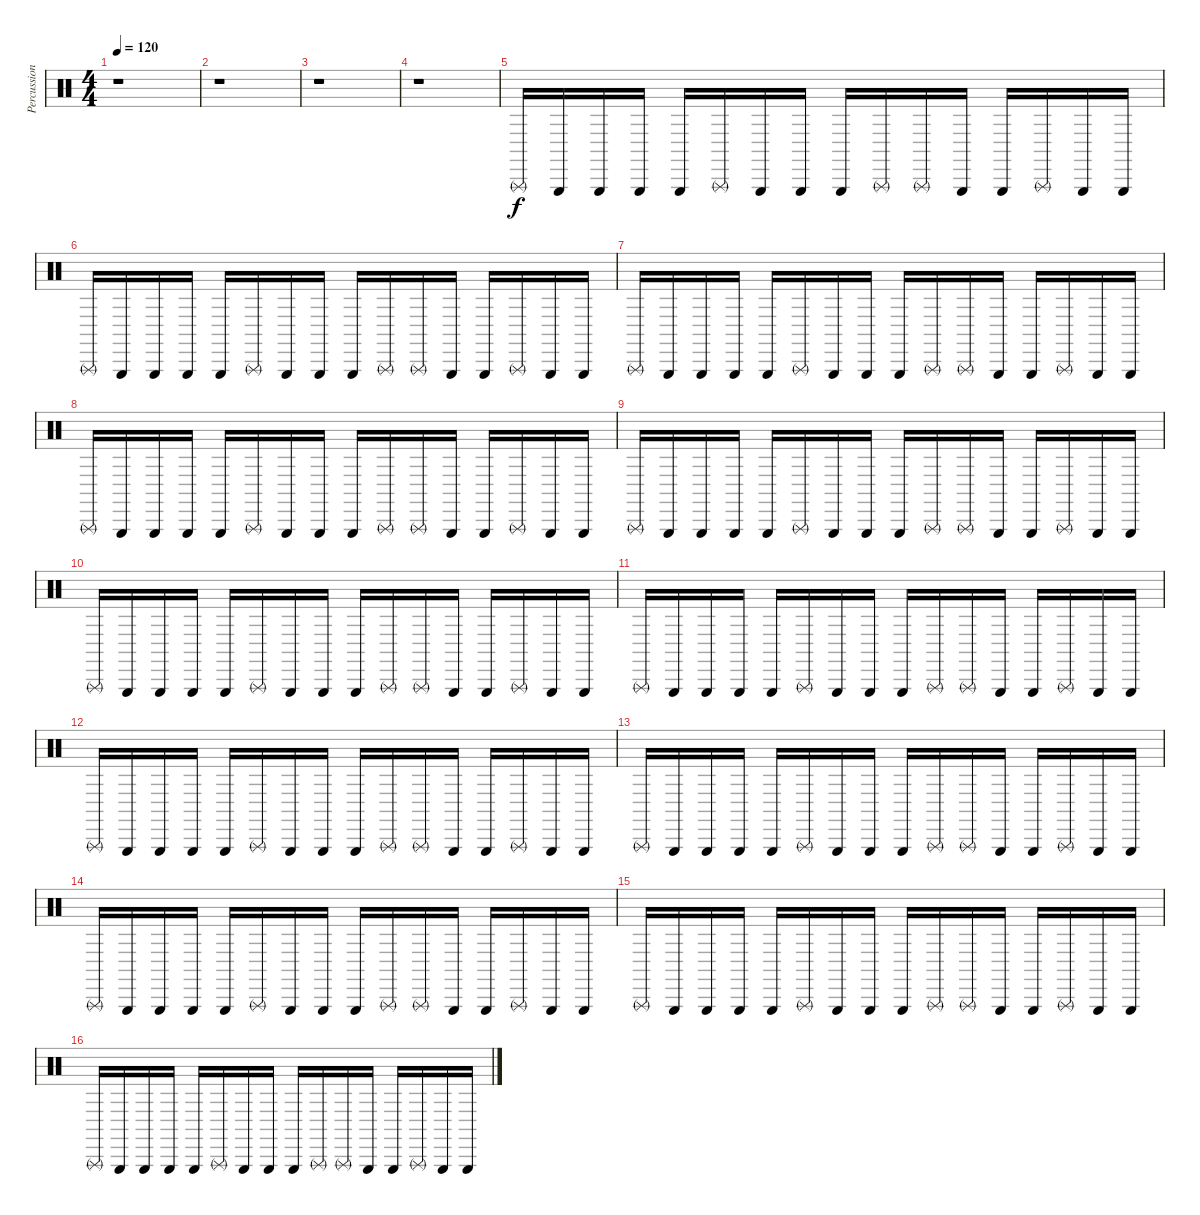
\track ("Percussion" "Percussion") {instrument percussion}
\staff {score}
\articulation defaults
\ts (4 4)
\tempo 120
\clef neutral
\ks c
r.1{dy f} |
r.1 |
r.1 |
r.1 |
"Triangle (rnute)".16 "Triangle (hit)".16 "Triangle (hit)".16 "Triangle (hit)".16 "Triangle (hit)".16 "Triangle (rnute)".16 "Triangle (hit)".16 "Triangle (hit)".16 "Triangle (hit)".16 "Triangle (rnute)".16 "Triangle (rnute)".16 "Triangle (hit)".16 "Triangle (hit)".16 "Triangle (rnute)".16 "Triangle (hit)".16 "Triangle (hit)".16 |
"Triangle (rnute)".16 "Triangle (hit)".16 "Triangle (hit)".16 "Triangle (hit)".16 "Triangle (hit)".16 "Triangle (rnute)".16 "Triangle (hit)".16 "Triangle (hit)".16 "Triangle (hit)".16 "Triangle (rnute)".16 "Triangle (rnute)".16 "Triangle (hit)".16 "Triangle (hit)".16 "Triangle (rnute)".16 "Triangle (hit)".16 "Triangle (hit)".16 |
"Triangle (rnute)".16 "Triangle (hit)".16 "Triangle (hit)".16 "Triangle (hit)".16 "Triangle (hit)".16 "Triangle (rnute)".16 "Triangle (hit)".16 "Triangle (hit)".16 "Triangle (hit)".16 "Triangle (rnute)".16 "Triangle (rnute)".16 "Triangle (hit)".16 "Triangle (hit)".16 "Triangle (rnute)".16 "Triangle (hit)".16 "Triangle (hit)".16 |
"Triangle (rnute)".16 "Triangle (hit)".16 "Triangle (hit)".16 "Triangle (hit)".16 "Triangle (hit)".16 "Triangle (rnute)".16 "Triangle (hit)".16 "Triangle (hit)".16 "Triangle (hit)".16 "Triangle (rnute)".16 "Triangle (rnute)".16 "Triangle (hit)".16 "Triangle (hit)".16 "Triangle (rnute)".16 "Triangle (hit)".16 "Triangle (hit)".16 |
"Triangle (rnute)".16 "Triangle (hit)".16 "Triangle (hit)".16 "Triangle (hit)".16 "Triangle (hit)".16 "Triangle (rnute)".16 "Triangle (hit)".16 "Triangle (hit)".16 "Triangle (hit)".16 "Triangle (rnute)".16 "Triangle (rnute)".16 "Triangle (hit)".16 "Triangle (hit)".16 "Triangle (rnute)".16 "Triangle (hit)".16 "Triangle (hit)".16 |
"Triangle (rnute)".16 "Triangle (hit)".16 "Triangle (hit)".16 "Triangle (hit)".16 "Triangle (hit)".16 "Triangle (rnute)".16 "Triangle (hit)".16 "Triangle (hit)".16 "Triangle (hit)".16 "Triangle (rnute)".16 "Triangle (rnute)".16 "Triangle (hit)".16 "Triangle (hit)".16 "Triangle (rnute)".16 "Triangle (hit)".16 "Triangle (hit)".16 |
"Triangle (rnute)".16 "Triangle (hit)".16 "Triangle (hit)".16 "Triangle (hit)".16 "Triangle (hit)".16 "Triangle (rnute)".16 "Triangle (hit)".16 "Triangle (hit)".16 "Triangle (hit)".16 "Triangle (rnute)".16 "Triangle (rnute)".16 "Triangle (hit)".16 "Triangle (hit)".16 "Triangle (rnute)".16 "Triangle (hit)".16 "Triangle (hit)".16 |
"Triangle (rnute)".16 "Triangle (hit)".16 "Triangle (hit)".16 "Triangle (hit)".16 "Triangle (hit)".16 "Triangle (rnute)".16 "Triangle (hit)".16 "Triangle (hit)".16 "Triangle (hit)".16 "Triangle (rnute)".16 "Triangle (rnute)".16 "Triangle (hit)".16 "Triangle (hit)".16 "Triangle (rnute)".16 "Triangle (hit)".16 "Triangle (hit)".16 |
"Triangle (rnute)".16 "Triangle (hit)".16 "Triangle (hit)".16 "Triangle (hit)".16 "Triangle (hit)".16 "Triangle (rnute)".16 "Triangle (hit)".16 "Triangle (hit)".16 "Triangle (hit)".16 "Triangle (rnute)".16 "Triangle (rnute)".16 "Triangle (hit)".16 "Triangle (hit)".16 "Triangle (rnute)".16 "Triangle (hit)".16 "Triangle (hit)".16 |
"Triangle (rnute)".16 "Triangle (hit)".16 "Triangle (hit)".16 "Triangle (hit)".16 "Triangle (hit)".16 "Triangle (rnute)".16 "Triangle (hit)".16 "Triangle (hit)".16 "Triangle (hit)".16 "Triangle (rnute)".16 "Triangle (rnute)".16 "Triangle (hit)".16 "Triangle (hit)".16 "Triangle (rnute)".16 "Triangle (hit)".16 "Triangle (hit)".16 |
"Triangle (rnute)".16 "Triangle (hit)".16 "Triangle (hit)".16 "Triangle (hit)".16 "Triangle (hit)".16 "Triangle (rnute)".16 "Triangle (hit)".16 "Triangle (hit)".16 "Triangle (hit)".16 "Triangle (rnute)".16 "Triangle (rnute)".16 "Triangle (hit)".16 "Triangle (hit)".16 "Triangle (rnute)".16 "Triangle (hit)".16 "Triangle (hit)".16 |
"Triangle (rnute)".16 "Triangle (hit)".16 "Triangle (hit)".16 "Triangle (hit)".16 "Triangle (hit)".16 "Triangle (rnute)".16 "Triangle (hit)".16 "Triangle (hit)".16 "Triangle (hit)".16 "Triangle (rnute)".16 "Triangle (rnute)".16 "Triangle (hit)".16 "Triangle (hit)".16 "Triangle (rnute)".16 "Triangle (hit)".16 "Triangle (hit)".16
